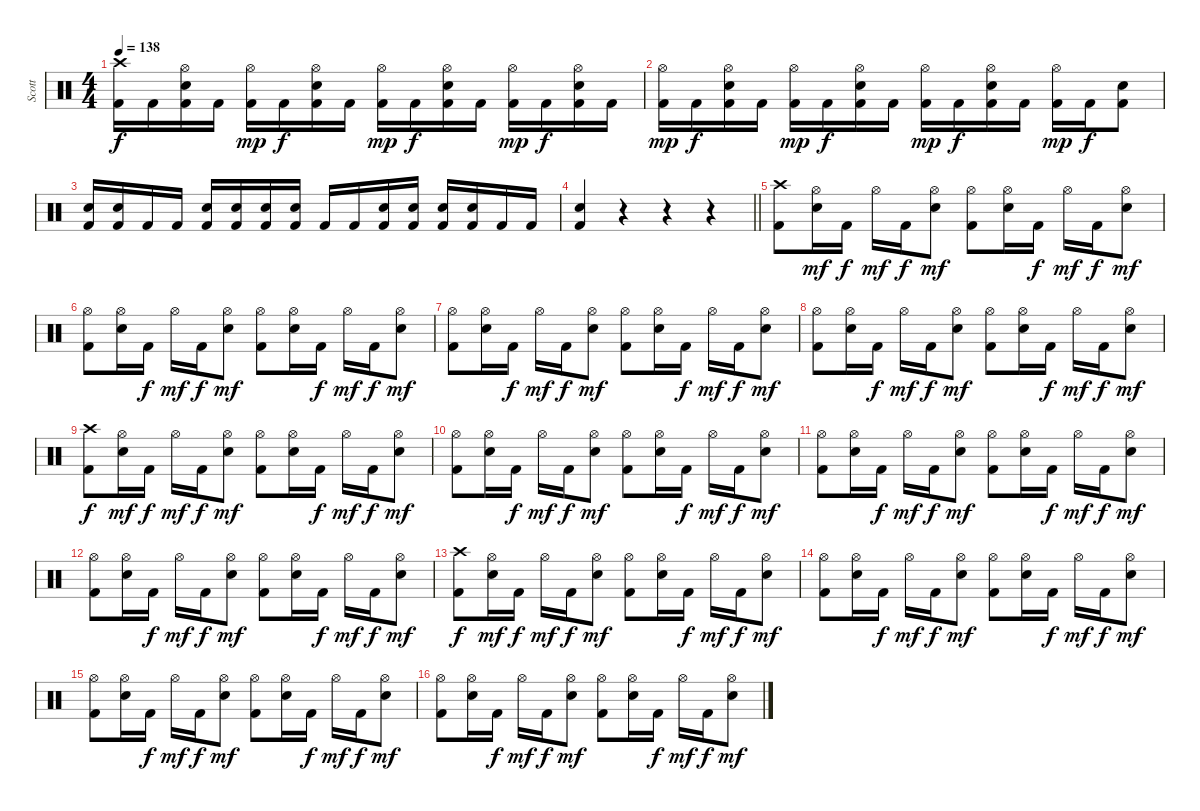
\track ("Scott" "Scott") {instrument percussion}
\staff {score}
\articulation defaults
\ts (4 4)
\tempo 138
\clef neutral
\ks c
("Crash high (hit)" "Kick (hit) 2").16{dy f} "Kick (hit) 2".16 ("Hi-Hat (open)" "Electric Snare (hit)" "Kick (hit) 2").16 "Kick (hit) 2".16 ("Hi-Hat (open)" "Kick (hit) 2").16{dy mp} "Kick (hit) 2".16{dy f} ("Hi-Hat (open)" "Electric Snare (hit)" "Kick (hit) 2").16 "Kick (hit) 2".16 ("Hi-Hat (open)" "Kick (hit) 2").16{dy mp} "Kick (hit) 2".16{dy f} ("Hi-Hat (open)" "Electric Snare (hit)" "Kick (hit) 2").16 "Kick (hit) 2".16 ("Hi-Hat (open)" "Kick (hit) 2").16{dy mp} "Kick (hit) 2".16{dy f} ("Hi-Hat (open)" "Electric Snare (hit)" "Kick (hit) 2").16 "Kick (hit) 2".16 |
("Hi-Hat (open)" "Kick (hit) 2").16{dy mp} "Kick (hit) 2".16{dy f} ("Hi-Hat (open)" "Electric Snare (hit)" "Kick (hit) 2").16 "Kick (hit) 2".16 ("Hi-Hat (open)" "Kick (hit) 2").16{dy mp} "Kick (hit) 2".16{dy f} ("Hi-Hat (open)" "Electric Snare (hit)" "Kick (hit) 2").16 "Kick (hit) 2".16 ("Hi-Hat (open)" "Kick (hit) 2").16{dy mp} "Kick (hit) 2".16{dy f} ("Hi-Hat (open)" "Electric Snare (hit)" "Kick (hit) 2").16 "Kick (hit) 2".16 ("Hi-Hat (open)" "Kick (hit) 2").16{dy mp} "Kick (hit) 2".16{dy f} ("Electric Snare (hit)" "Kick (hit) 2").8 |
("Electric Snare (hit)" "Kick (hit) 2").16 ("Electric Snare (hit)" "Kick (hit) 2").16 "Kick (hit) 2".16 "Kick (hit) 2".16 ("Electric Snare (hit)" "Kick (hit) 2").16 ("Electric Snare (hit)" "Kick (hit) 2").16 ("Electric Snare (hit)" "Kick (hit) 2").16 ("Electric Snare (hit)" "Kick (hit) 2").16 "Kick (hit) 2".16 "Kick (hit) 2".16 ("Electric Snare (hit)" "Kick (hit) 2").16 ("Electric Snare (hit)" "Kick (hit) 2").16 ("Electric Snare (hit)" "Kick (hit) 2").16 ("Electric Snare (hit)" "Kick (hit) 2").16 "Kick (hit) 2".16 "Kick (hit) 2".16 |
\barLineRight lightlight
("Electric Snare (hit)" "Kick (hit) 2").4 r.4 r.4 r.4 |
("Crash high (hit)" "Kick (hit) 2").8 ("Hi-Hat (open)" "Electric Snare (hit)").16{dy mf} "Kick (hit) 2".16{dy f} "Hi-Hat (open)".16{dy mf} "Kick (hit) 2".16{dy f} ("Hi-Hat (open)" "Electric Snare (hit)").8{dy mf} ("Hi-Hat (open)" "Kick (hit) 2").8 ("Hi-Hat (open)" "Electric Snare (hit)").16 "Kick (hit) 2".16{dy f} "Hi-Hat (open)".16{dy mf} "Kick (hit) 2".16{dy f} ("Hi-Hat (open)" "Electric Snare (hit)").8{dy mf} |
("Hi-Hat (open)" "Kick (hit) 2").8 ("Hi-Hat (open)" "Electric Snare (hit)").16 "Kick (hit) 2".16{dy f} "Hi-Hat (open)".16{dy mf} "Kick (hit) 2".16{dy f} ("Hi-Hat (open)" "Electric Snare (hit)").8{dy mf} ("Hi-Hat (open)" "Kick (hit) 2").8 ("Hi-Hat (open)" "Electric Snare (hit)").16 "Kick (hit) 2".16{dy f} "Hi-Hat (open)".16{dy mf} "Kick (hit) 2".16{dy f} ("Hi-Hat (open)" "Electric Snare (hit)").8{dy mf} |
("Hi-Hat (open)" "Kick (hit) 2").8 ("Hi-Hat (open)" "Electric Snare (hit)").16 "Kick (hit) 2".16{dy f} "Hi-Hat (open)".16{dy mf} "Kick (hit) 2".16{dy f} ("Hi-Hat (open)" "Electric Snare (hit)").8{dy mf} ("Hi-Hat (open)" "Kick (hit) 2").8 ("Hi-Hat (open)" "Electric Snare (hit)").16 "Kick (hit) 2".16{dy f} "Hi-Hat (open)".16{dy mf} "Kick (hit) 2".16{dy f} ("Hi-Hat (open)" "Electric Snare (hit)").8{dy mf} |
("Hi-Hat (open)" "Kick (hit) 2").8 ("Hi-Hat (open)" "Electric Snare (hit)").16 "Kick (hit) 2".16{dy f} "Hi-Hat (open)".16{dy mf} "Kick (hit) 2".16{dy f} ("Hi-Hat (open)" "Electric Snare (hit)").8{dy mf} ("Hi-Hat (open)" "Kick (hit) 2").8 ("Hi-Hat (open)" "Electric Snare (hit)").16 "Kick (hit) 2".16{dy f} "Hi-Hat (open)".16{dy mf} "Kick (hit) 2".16{dy f} ("Hi-Hat (open)" "Electric Snare (hit)").8{dy mf} |
("Crash high (hit)" "Kick (hit) 2").8{dy f} ("Hi-Hat (open)" "Electric Snare (hit)").16{dy mf} "Kick (hit) 2".16{dy f} "Hi-Hat (open)".16{dy mf} "Kick (hit) 2".16{dy f} ("Hi-Hat (open)" "Electric Snare (hit)").8{dy mf} ("Hi-Hat (open)" "Kick (hit) 2").8 ("Hi-Hat (open)" "Electric Snare (hit)").16 "Kick (hit) 2".16{dy f} "Hi-Hat (open)".16{dy mf} "Kick (hit) 2".16{dy f} ("Hi-Hat (open)" "Electric Snare (hit)").8{dy mf} |
("Hi-Hat (open)" "Kick (hit) 2").8 ("Hi-Hat (open)" "Electric Snare (hit)").16 "Kick (hit) 2".16{dy f} "Hi-Hat (open)".16{dy mf} "Kick (hit) 2".16{dy f} ("Hi-Hat (open)" "Electric Snare (hit)").8{dy mf} ("Hi-Hat (open)" "Kick (hit) 2").8 ("Hi-Hat (open)" "Electric Snare (hit)").16 "Kick (hit) 2".16{dy f} "Hi-Hat (open)".16{dy mf} "Kick (hit) 2".16{dy f} ("Hi-Hat (open)" "Electric Snare (hit)").8{dy mf} |
("Hi-Hat (open)" "Kick (hit) 2").8 ("Hi-Hat (open)" "Electric Snare (hit)").16 "Kick (hit) 2".16{dy f} "Hi-Hat (open)".16{dy mf} "Kick (hit) 2".16{dy f} ("Hi-Hat (open)" "Electric Snare (hit)").8{dy mf} ("Hi-Hat (open)" "Kick (hit) 2").8 ("Hi-Hat (open)" "Electric Snare (hit)").16 "Kick (hit) 2".16{dy f} "Hi-Hat (open)".16{dy mf} "Kick (hit) 2".16{dy f} ("Hi-Hat (open)" "Electric Snare (hit)").8{dy mf} |
("Hi-Hat (open)" "Kick (hit) 2").8 ("Hi-Hat (open)" "Electric Snare (hit)").16 "Kick (hit) 2".16{dy f} "Hi-Hat (open)".16{dy mf} "Kick (hit) 2".16{dy f} ("Hi-Hat (open)" "Electric Snare (hit)").8{dy mf} ("Hi-Hat (open)" "Kick (hit) 2").8 ("Hi-Hat (open)" "Electric Snare (hit)").16 "Kick (hit) 2".16{dy f} "Hi-Hat (open)".16{dy mf} "Kick (hit) 2".16{dy f} ("Hi-Hat (open)" "Electric Snare (hit)").8{dy mf} |
("Crash high (hit)" "Kick (hit) 2").8{dy f} ("Hi-Hat (open)" "Electric Snare (hit)").16{dy mf} "Kick (hit) 2".16{dy f} "Hi-Hat (open)".16{dy mf} "Kick (hit) 2".16{dy f} ("Hi-Hat (open)" "Electric Snare (hit)").8{dy mf} ("Hi-Hat (open)" "Kick (hit) 2").8 ("Hi-Hat (open)" "Electric Snare (hit)").16 "Kick (hit) 2".16{dy f} "Hi-Hat (open)".16{dy mf} "Kick (hit) 2".16{dy f} ("Hi-Hat (open)" "Electric Snare (hit)").8{dy mf} |
("Hi-Hat (open)" "Kick (hit) 2").8 ("Hi-Hat (open)" "Electric Snare (hit)").16 "Kick (hit) 2".16{dy f} "Hi-Hat (open)".16{dy mf} "Kick (hit) 2".16{dy f} ("Hi-Hat (open)" "Electric Snare (hit)").8{dy mf} ("Hi-Hat (open)" "Kick (hit) 2").8 ("Hi-Hat (open)" "Electric Snare (hit)").16 "Kick (hit) 2".16{dy f} "Hi-Hat (open)".16{dy mf} "Kick (hit) 2".16{dy f} ("Hi-Hat (open)" "Electric Snare (hit)").8{dy mf} |
("Hi-Hat (open)" "Kick (hit) 2").8 ("Hi-Hat (open)" "Electric Snare (hit)").16 "Kick (hit) 2".16{dy f} "Hi-Hat (open)".16{dy mf} "Kick (hit) 2".16{dy f} ("Hi-Hat (open)" "Electric Snare (hit)").8{dy mf} ("Hi-Hat (open)" "Kick (hit) 2").8 ("Hi-Hat (open)" "Electric Snare (hit)").16 "Kick (hit) 2".16{dy f} "Hi-Hat (open)".16{dy mf} "Kick (hit) 2".16{dy f} ("Hi-Hat (open)" "Electric Snare (hit)").8{dy mf} |
("Hi-Hat (open)" "Kick (hit) 2").8 ("Hi-Hat (open)" "Electric Snare (hit)").16 "Kick (hit) 2".16{dy f} "Hi-Hat (open)".16{dy mf} "Kick (hit) 2".16{dy f} ("Hi-Hat (open)" "Electric Snare (hit)").8{dy mf} ("Hi-Hat (open)" "Kick (hit) 2").8 ("Hi-Hat (open)" "Electric Snare (hit)").16 "Kick (hit) 2".16{dy f} "Hi-Hat (open)".16{dy mf} "Kick (hit) 2".16{dy f} ("Hi-Hat (open)" "Electric Snare (hit)").8{dy mf}
